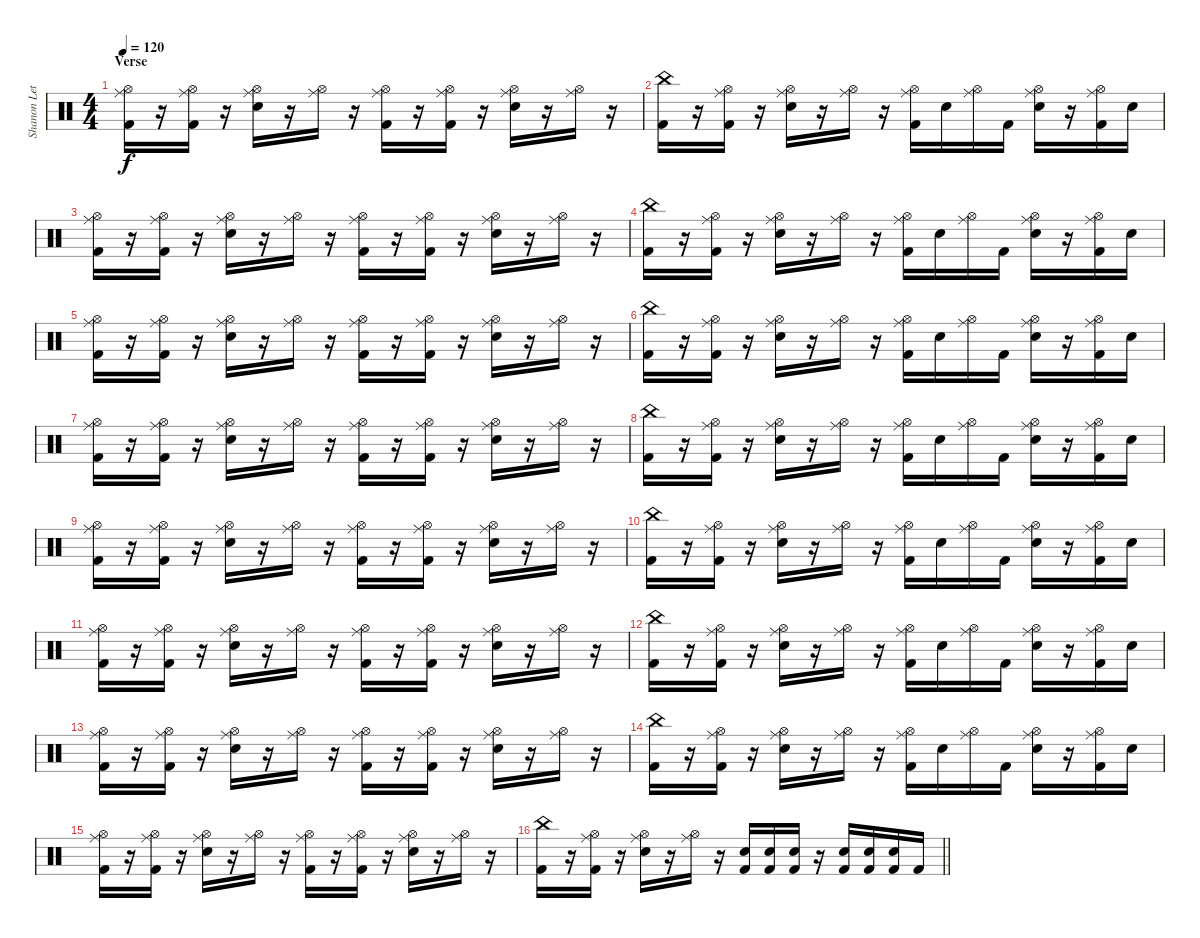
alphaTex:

\track ("Shanon Leto(Drums)" "Shanon Let") {instrument percussion}
\staff {score}
\articulation defaults
\ts (4 4)
\section ("" "Verse")
\tempo 120
\clef neutral
\ks c
("Ride (middle)" "Hi-Hat (open)" "Kick (hit) 2").16{dy f} r.16 ("Ride (middle)" "Hi-Hat (open)" "Kick (hit) 2").16 r.16 ("Ride (middle)" "Hi-Hat (open)" "Electric Snare (hit)").16 r.16 ("Ride (middle)" "Hi-Hat (open)").16 r.16 ("Ride (middle)" "Hi-Hat (open)" "Kick (hit) 2").16 r.16 ("Ride (middle)" "Hi-Hat (open)" "Kick (hit) 2").16 r.16 ("Ride (middle)" "Hi-Hat (open)" "Electric Snare (hit)").16 r.16 ("Ride (middle)" "Hi-Hat (open)").16 r.16 |
("China (hit)" "Kick (hit) 2").16 r.16 ("Ride (middle)" "Hi-Hat (open)" "Kick (hit) 2").16 r.16 ("Ride (middle)" "Hi-Hat (open)" "Electric Snare (hit)").16 r.16 ("Ride (middle)" "Hi-Hat (open)").16 r.16 ("Ride (middle)" "Hi-Hat (open)" "Kick (hit) 2").16 "Electric Snare (hit)".16 ("Ride (middle)" "Hi-Hat (open)").16 "Kick (hit) 2".16 ("Ride (middle)" "Hi-Hat (open)" "Electric Snare (hit)").16 r.16 ("Ride (middle)" "Hi-Hat (open)" "Kick (hit) 2").16 "Electric Snare (hit)".16 |
("Ride (middle)" "Hi-Hat (open)" "Kick (hit) 2").16 r.16 ("Ride (middle)" "Hi-Hat (open)" "Kick (hit) 2").16 r.16 ("Ride (middle)" "Hi-Hat (open)" "Electric Snare (hit)").16 r.16 ("Ride (middle)" "Hi-Hat (open)").16 r.16 ("Ride (middle)" "Hi-Hat (open)" "Kick (hit) 2").16 r.16 ("Ride (middle)" "Hi-Hat (open)" "Kick (hit) 2").16 r.16 ("Ride (middle)" "Hi-Hat (open)" "Electric Snare (hit)").16 r.16 ("Ride (middle)" "Hi-Hat (open)").16 r.16 |
("China (hit)" "Kick (hit) 2").16 r.16 ("Ride (middle)" "Hi-Hat (open)" "Kick (hit) 2").16 r.16 ("Ride (middle)" "Hi-Hat (open)" "Electric Snare (hit)").16 r.16 ("Ride (middle)" "Hi-Hat (open)").16 r.16 ("Ride (middle)" "Hi-Hat (open)" "Kick (hit) 2").16 "Electric Snare (hit)".16 ("Ride (middle)" "Hi-Hat (open)").16 "Kick (hit) 2".16 ("Ride (middle)" "Hi-Hat (open)" "Electric Snare (hit)").16 r.16 ("Ride (middle)" "Hi-Hat (open)" "Kick (hit) 2").16 "Electric Snare (hit)".16 |
("Ride (middle)" "Hi-Hat (open)" "Kick (hit) 2").16 r.16 ("Ride (middle)" "Hi-Hat (open)" "Kick (hit) 2").16 r.16 ("Ride (middle)" "Hi-Hat (open)" "Electric Snare (hit)").16 r.16 ("Ride (middle)" "Hi-Hat (open)").16 r.16 ("Ride (middle)" "Hi-Hat (open)" "Kick (hit) 2").16 r.16 ("Ride (middle)" "Hi-Hat (open)" "Kick (hit) 2").16 r.16 ("Ride (middle)" "Hi-Hat (open)" "Electric Snare (hit)").16 r.16 ("Ride (middle)" "Hi-Hat (open)").16 r.16 |
("China (hit)" "Kick (hit) 2").16 r.16 ("Ride (middle)" "Hi-Hat (open)" "Kick (hit) 2").16 r.16 ("Ride (middle)" "Hi-Hat (open)" "Electric Snare (hit)").16 r.16 ("Ride (middle)" "Hi-Hat (open)").16 r.16 ("Ride (middle)" "Hi-Hat (open)" "Kick (hit) 2").16 "Electric Snare (hit)".16 ("Ride (middle)" "Hi-Hat (open)").16 "Kick (hit) 2".16 ("Ride (middle)" "Hi-Hat (open)" "Electric Snare (hit)").16 r.16 ("Ride (middle)" "Hi-Hat (open)" "Kick (hit) 2").16 "Electric Snare (hit)".16 |
("Ride (middle)" "Hi-Hat (open)" "Kick (hit) 2").16 r.16 ("Ride (middle)" "Hi-Hat (open)" "Kick (hit) 2").16 r.16 ("Ride (middle)" "Hi-Hat (open)" "Electric Snare (hit)").16 r.16 ("Ride (middle)" "Hi-Hat (open)").16 r.16 ("Ride (middle)" "Hi-Hat (open)" "Kick (hit) 2").16 r.16 ("Ride (middle)" "Hi-Hat (open)" "Kick (hit) 2").16 r.16 ("Ride (middle)" "Hi-Hat (open)" "Electric Snare (hit)").16 r.16 ("Ride (middle)" "Hi-Hat (open)").16 r.16 |
("China (hit)" "Kick (hit) 2").16 r.16 ("Ride (middle)" "Hi-Hat (open)" "Kick (hit) 2").16 r.16 ("Ride (middle)" "Hi-Hat (open)" "Electric Snare (hit)").16 r.16 ("Ride (middle)" "Hi-Hat (open)").16 r.16 ("Ride (middle)" "Hi-Hat (open)" "Kick (hit) 2").16 "Electric Snare (hit)".16 ("Ride (middle)" "Hi-Hat (open)").16 "Kick (hit) 2".16 ("Ride (middle)" "Hi-Hat (open)" "Electric Snare (hit)").16 r.16 ("Ride (middle)" "Hi-Hat (open)" "Kick (hit) 2").16 "Electric Snare (hit)".16 |
("Ride (middle)" "Hi-Hat (open)" "Kick (hit) 2").16 r.16 ("Ride (middle)" "Hi-Hat (open)" "Kick (hit) 2").16 r.16 ("Ride (middle)" "Hi-Hat (open)" "Electric Snare (hit)").16 r.16 ("Ride (middle)" "Hi-Hat (open)").16 r.16 ("Ride (middle)" "Hi-Hat (open)" "Kick (hit) 2").16 r.16 ("Ride (middle)" "Hi-Hat (open)" "Kick (hit) 2").16 r.16 ("Ride (middle)" "Hi-Hat (open)" "Electric Snare (hit)").16 r.16 ("Ride (middle)" "Hi-Hat (open)").16 r.16 |
("China (hit)" "Kick (hit) 2").16 r.16 ("Ride (middle)" "Hi-Hat (open)" "Kick (hit) 2").16 r.16 ("Ride (middle)" "Hi-Hat (open)" "Electric Snare (hit)").16 r.16 ("Ride (middle)" "Hi-Hat (open)").16 r.16 ("Ride (middle)" "Hi-Hat (open)" "Kick (hit) 2").16 "Electric Snare (hit)".16 ("Ride (middle)" "Hi-Hat (open)").16 "Kick (hit) 2".16 ("Ride (middle)" "Hi-Hat (open)" "Electric Snare (hit)").16 r.16 ("Ride (middle)" "Hi-Hat (open)" "Kick (hit) 2").16 "Electric Snare (hit)".16 |
("Ride (middle)" "Hi-Hat (open)" "Kick (hit) 2").16 r.16 ("Ride (middle)" "Hi-Hat (open)" "Kick (hit) 2").16 r.16 ("Ride (middle)" "Hi-Hat (open)" "Electric Snare (hit)").16 r.16 ("Ride (middle)" "Hi-Hat (open)").16 r.16 ("Ride (middle)" "Hi-Hat (open)" "Kick (hit) 2").16 r.16 ("Ride (middle)" "Hi-Hat (open)" "Kick (hit) 2").16 r.16 ("Ride (middle)" "Hi-Hat (open)" "Electric Snare (hit)").16 r.16 ("Ride (middle)" "Hi-Hat (open)").16 r.16 |
("China (hit)" "Kick (hit) 2").16 r.16 ("Ride (middle)" "Hi-Hat (open)" "Kick (hit) 2").16 r.16 ("Ride (middle)" "Hi-Hat (open)" "Electric Snare (hit)").16 r.16 ("Ride (middle)" "Hi-Hat (open)").16 r.16 ("Ride (middle)" "Hi-Hat (open)" "Kick (hit) 2").16 "Electric Snare (hit)".16 ("Ride (middle)" "Hi-Hat (open)").16 "Kick (hit) 2".16 ("Ride (middle)" "Hi-Hat (open)" "Electric Snare (hit)").16 r.16 ("Ride (middle)" "Hi-Hat (open)" "Kick (hit) 2").16 "Electric Snare (hit)".16 |
("Ride (middle)" "Hi-Hat (open)" "Kick (hit) 2").16 r.16 ("Ride (middle)" "Hi-Hat (open)" "Kick (hit) 2").16 r.16 ("Ride (middle)" "Hi-Hat (open)" "Electric Snare (hit)").16 r.16 ("Ride (middle)" "Hi-Hat (open)").16 r.16 ("Ride (middle)" "Hi-Hat (open)" "Kick (hit) 2").16 r.16 ("Ride (middle)" "Hi-Hat (open)" "Kick (hit) 2").16 r.16 ("Ride (middle)" "Hi-Hat (open)" "Electric Snare (hit)").16 r.16 ("Ride (middle)" "Hi-Hat (open)").16 r.16 |
("China (hit)" "Kick (hit) 2").16 r.16 ("Ride (middle)" "Hi-Hat (open)" "Kick (hit) 2").16 r.16 ("Ride (middle)" "Hi-Hat (open)" "Electric Snare (hit)").16 r.16 ("Ride (middle)" "Hi-Hat (open)").16 r.16 ("Ride (middle)" "Hi-Hat (open)" "Kick (hit) 2").16 "Electric Snare (hit)".16 ("Ride (middle)" "Hi-Hat (open)").16 "Kick (hit) 2".16 ("Ride (middle)" "Hi-Hat (open)" "Electric Snare (hit)").16 r.16 ("Ride (middle)" "Hi-Hat (open)" "Kick (hit) 2").16 "Electric Snare (hit)".16 |
("Ride (middle)" "Hi-Hat (open)" "Kick (hit) 2").16 r.16 ("Ride (middle)" "Hi-Hat (open)" "Kick (hit) 2").16 r.16 ("Ride (middle)" "Hi-Hat (open)" "Electric Snare (hit)").16 r.16 ("Ride (middle)" "Hi-Hat (open)").16 r.16 ("Ride (middle)" "Hi-Hat (open)" "Kick (hit) 2").16 r.16 ("Ride (middle)" "Hi-Hat (open)" "Kick (hit) 2").16 r.16 ("Ride (middle)" "Hi-Hat (open)" "Electric Snare (hit)").16 r.16 ("Ride (middle)" "Hi-Hat (open)").16 r.16 |
\barLineRight lightlight
("China (hit)" "Kick (hit) 2").16 r.16 ("Ride (middle)" "Hi-Hat (open)" "Kick (hit) 2").16 r.16 ("Ride (middle)" "Hi-Hat (open)" "Electric Snare (hit)").16 r.16 ("Ride (middle)" "Hi-Hat (open)").16 r.16 ("Electric Snare (hit)" "Kick (hit) 2").16 ("Electric Snare (hit)" "Kick (hit) 2").16 ("Electric Snare (hit)" "Kick (hit) 2").16 r.16 ("Kick (hit) 2" "Electric Snare (hit)").16 ("Electric Snare (hit)" "Kick (hit) 2").16 ("Electric Snare (hit)" "Kick (hit) 2").16 "Kick (hit) 2".16
